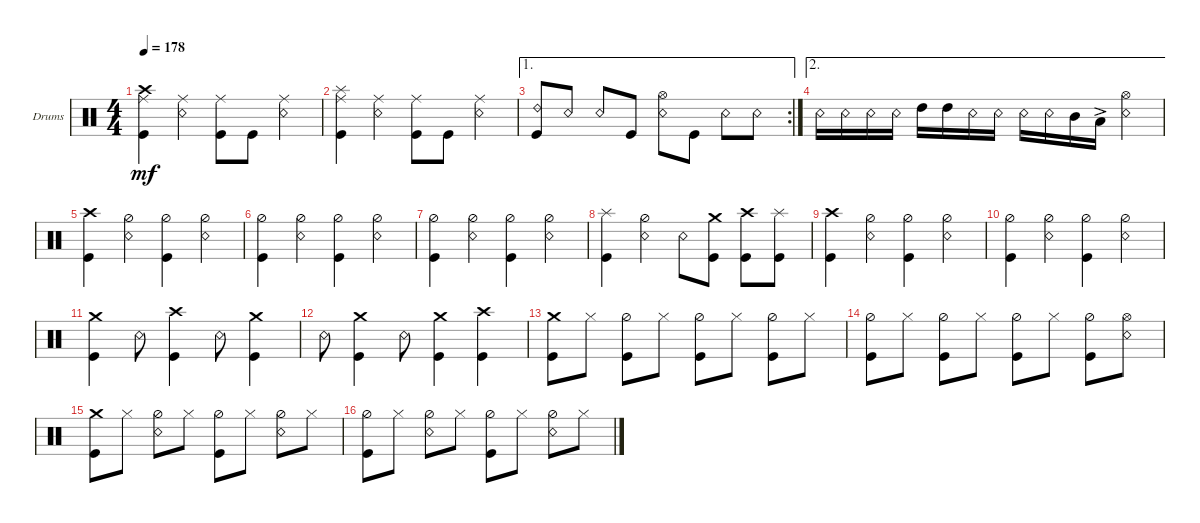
\defaultSystemsLayout 4
\bracketExtendMode groupsimilarinstruments
\firstSystemTrackNameOrientation horizontal
\otherSystemsTrackNameOrientation horizontal
\track ("Drumkit" "Drums") {instrument percussion}
\staff {score}
\articulation defaults
\ts (4 4)
\tempo 178
\clef neutral
\ks c
("Kick (hit)" "Ride (middle)" "Crash high (hit)").4{dy mf} ("Ride (middle)" "Snare (rim shot)").4 ("Ride (middle)" "Kick (hit)").8 "Kick (hit)".8 ("Snare (rim shot)" "Ride (middle)").4 |
("Kick (hit)" "Ride (middle)" "Splash (hit)").4 ("Ride (middle)" "Snare (rim shot)").4 ("Ride (middle)" "Kick (hit)").8 "Kick (hit)".8 ("Snare (rim shot)" "Ride (middle)").4 |
\ae 1
\rc 2
("Kick (hit)" "Ride (bell) 2").8 "Snare (rim shot)".8 "Snare (rim shot)".8 "Kick (hit)".8 ("Snare (rim shot)" "Hi-Hat (open)").8 "Kick (hit)".8 "Snare (rim shot)".8 "Snare (rim shot)".8 |
\ae 2 "Snare (rim shot)".16 "Snare (rim shot)".16 "Snare (rim shot)".16 "Snare (rim shot)".16 "High Tom (hit)".16 "High Tom (hit)".16 "Snare (rim shot)".16 "Snare (rim shot)".16 "Snare (rim shot)".16 "Snare (rim shot)".16 "Mid Tom (hit)".16 "Low Tom (hit)"{ac}.16
("Snare (rim shot)" "Hi-Hat (open)").4 |
("Kick (hit)" "Crash high (hit)").4 ("Hi-Hat (half)" "Snare (rim shot)").4 ("Kick (hit)" "Hi-Hat (half)").4 ("Hi-Hat (half)" "Snare (rim shot)").4 |
("Kick (hit)" "Hi-Hat (half)").4 ("Hi-Hat (half)" "Snare (rim shot)").4 ("Kick (hit)" "Hi-Hat (half)").4 ("Hi-Hat (half)" "Snare (rim shot)").4 |
("Kick (hit)" "Hi-Hat (half)").4 ("Hi-Hat (half)" "Snare (rim shot)").4 ("Kick (hit)" "Hi-Hat (half)").4 ("Hi-Hat (half)" "Snare (rim shot)").4 |
("Kick (hit)" "Splash (hit)").4 ("Hi-Hat (half)" "Snare (rim shot)").4 "Snare (rim shot)".8 ("Kick (hit)" "Crash medium (hit)").8 ("Kick (hit)" "Crash high (hit)").8 ("Kick (hit)" "Splash (hit)").8 |
("Kick (hit)" "Crash high (hit)").4 ("Hi-Hat (half)" "Snare (rim shot)").4 ("Kick (hit)" "Hi-Hat (half)").4 ("Hi-Hat (half)" "Snare (rim shot)").4 |
("Kick (hit)" "Hi-Hat (half)").4 ("Hi-Hat (half)" "Snare (rim shot)").4 ("Kick (hit)" "Hi-Hat (half)").4 ("Hi-Hat (half)" "Snare (rim shot)").4 |
("Kick (hit)" "Crash medium (hit)").4 "Snare (rim shot)".8 ("Kick (hit)" "Crash high (hit)").4 "Snare (rim shot)".8 ("Kick (hit)" "Crash medium (hit)").4 |
"Snare (rim shot)".8 ("Kick (hit)" "Crash medium (hit)").4 "Snare (rim shot)".8 ("Kick (hit)" "Crash medium (hit)").4 ("Kick (hit)" "Crash high (hit)").4 |
("Kick (hit)" "Crash medium (hit)").8 "Hi-Hat (closed)".8 ("Kick (hit)" "Hi-Hat (half)").8 "Hi-Hat (closed)".8 ("Kick (hit)" "Hi-Hat (half)").8 "Hi-Hat (closed)".8 ("Kick (hit)" "Hi-Hat (half)").8 "Hi-Hat (closed)".8 |
("Kick (hit)" "Hi-Hat (half)").8 "Hi-Hat (closed)".8 ("Kick (hit)" "Hi-Hat (half)").8 "Hi-Hat (closed)".8 ("Kick (hit)" "Hi-Hat (half)").8 "Hi-Hat (closed)".8 ("Kick (hit)" "Hi-Hat (half)").8 ("Hi-Hat (open)" "Snare (rim shot)").8 |
("Kick (hit)" "Crash medium (hit)").8 "Hi-Hat (closed)".8 ("Hi-Hat (half)" "Snare (rim shot)").8 "Hi-Hat (closed)".8 ("Kick (hit)" "Hi-Hat (half)").8 "Hi-Hat (closed)".8 ("Hi-Hat (half)" "Snare (rim shot)").8 "Hi-Hat (closed)".8 |
("Kick (hit)" "Hi-Hat (half)").8 "Hi-Hat (closed)".8 ("Hi-Hat (half)" "Snare (rim shot)").8 "Hi-Hat (closed)".8 ("Kick (hit)" "Hi-Hat (half)").8 "Hi-Hat (closed)".8 ("Hi-Hat (half)" "Snare (rim shot)").8 "Hi-Hat (closed)".8
